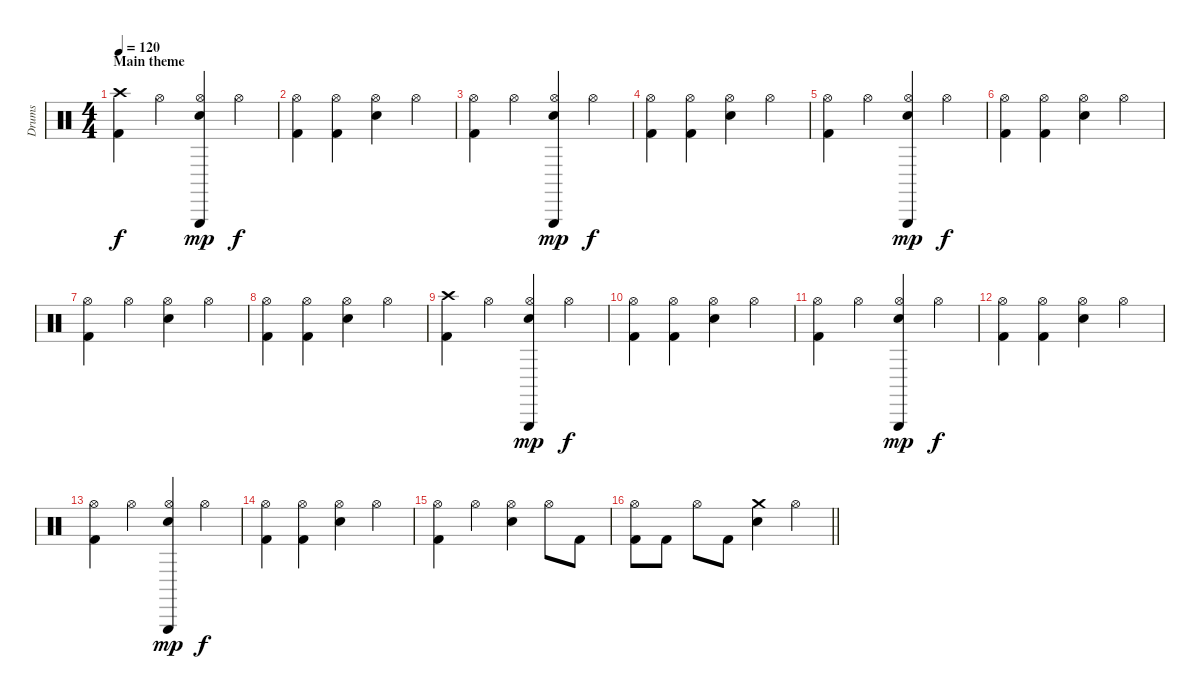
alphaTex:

\track ("Drums" "Drums") {instrument percussion}
\staff {score}
\articulation defaults
\ts (4 4)
\section ("" "Main theme")
\tempo 120
\clef neutral
\ks c
("Crash high (hit)" "Kick (hit) 2").4{dy f} "Hi-Hat (open)".4 ("Hi-Hat (open)" "Snare (hit) 2" "Triangle (hit)").4{dy mp} "Hi-Hat (open)".4{dy f} |
("Hi-Hat (open)" "Kick (hit) 2").4 ("Hi-Hat (open)" "Kick (hit) 2").4 ("Hi-Hat (open)" "Snare (hit) 2").4 "Hi-Hat (open)".4 |
("Hi-Hat (open)" "Kick (hit) 2").4 "Hi-Hat (open)".4 ("Hi-Hat (open)" "Snare (hit) 2" "Triangle (hit)").4{dy mp} "Hi-Hat (open)".4{dy f} |
("Hi-Hat (open)" "Kick (hit) 2").4 ("Hi-Hat (open)" "Kick (hit) 2").4 ("Hi-Hat (open)" "Snare (hit) 2").4 "Hi-Hat (open)".4 |
("Hi-Hat (open)" "Kick (hit) 2").4 "Hi-Hat (open)".4 ("Hi-Hat (open)" "Snare (hit) 2" "Triangle (hit)").4{dy mp} "Hi-Hat (open)".4{dy f} |
("Hi-Hat (open)" "Kick (hit) 2").4 ("Hi-Hat (open)" "Kick (hit) 2").4 ("Hi-Hat (open)" "Snare (hit) 2").4 "Hi-Hat (open)".4 |
("Hi-Hat (open)" "Kick (hit) 2").4 "Hi-Hat (open)".4 ("Hi-Hat (open)" "Snare (hit) 2").4 "Hi-Hat (open)".4 |
("Hi-Hat (open)" "Kick (hit) 2").4 ("Hi-Hat (open)" "Kick (hit) 2").4 ("Hi-Hat (open)" "Snare (hit) 2").4 "Hi-Hat (open)".4 |
("Crash high (hit)" "Kick (hit) 2").4 "Hi-Hat (open)".4 ("Hi-Hat (open)" "Snare (hit) 2" "Triangle (hit)").4{dy mp} "Hi-Hat (open)".4{dy f} |
("Hi-Hat (open)" "Kick (hit) 2").4 ("Hi-Hat (open)" "Kick (hit) 2").4 ("Hi-Hat (open)" "Snare (hit) 2").4 "Hi-Hat (open)".4 |
("Hi-Hat (open)" "Kick (hit) 2").4 "Hi-Hat (open)".4 ("Hi-Hat (open)" "Snare (hit) 2" "Triangle (hit)").4{dy mp} "Hi-Hat (open)".4{dy f} |
("Hi-Hat (open)" "Kick (hit) 2").4 ("Hi-Hat (open)" "Kick (hit) 2").4 ("Hi-Hat (open)" "Snare (hit) 2").4 "Hi-Hat (open)".4 |
("Hi-Hat (open)" "Kick (hit) 2").4 "Hi-Hat (open)".4 ("Hi-Hat (open)" "Snare (hit) 2" "Triangle (hit)").4{dy mp} "Hi-Hat (open)".4{dy f} |
("Hi-Hat (open)" "Kick (hit) 2").4 ("Hi-Hat (open)" "Kick (hit) 2").4 ("Hi-Hat (open)" "Snare (hit) 2").4 "Hi-Hat (open)".4 |
("Hi-Hat (open)" "Kick (hit) 2").4 "Hi-Hat (open)".4 ("Hi-Hat (open)" "Snare (hit) 2").4 "Hi-Hat (open)".8 "Kick (hit) 2".8 |
\barLineRight lightlight
("Hi-Hat (open)" "Kick (hit) 2").8 "Kick (hit) 2".8 "Hi-Hat (open)".8 "Kick (hit) 2".8 ("Crash medium (hit)" "Snare (hit) 2").4 "Hi-Hat (open)".4
